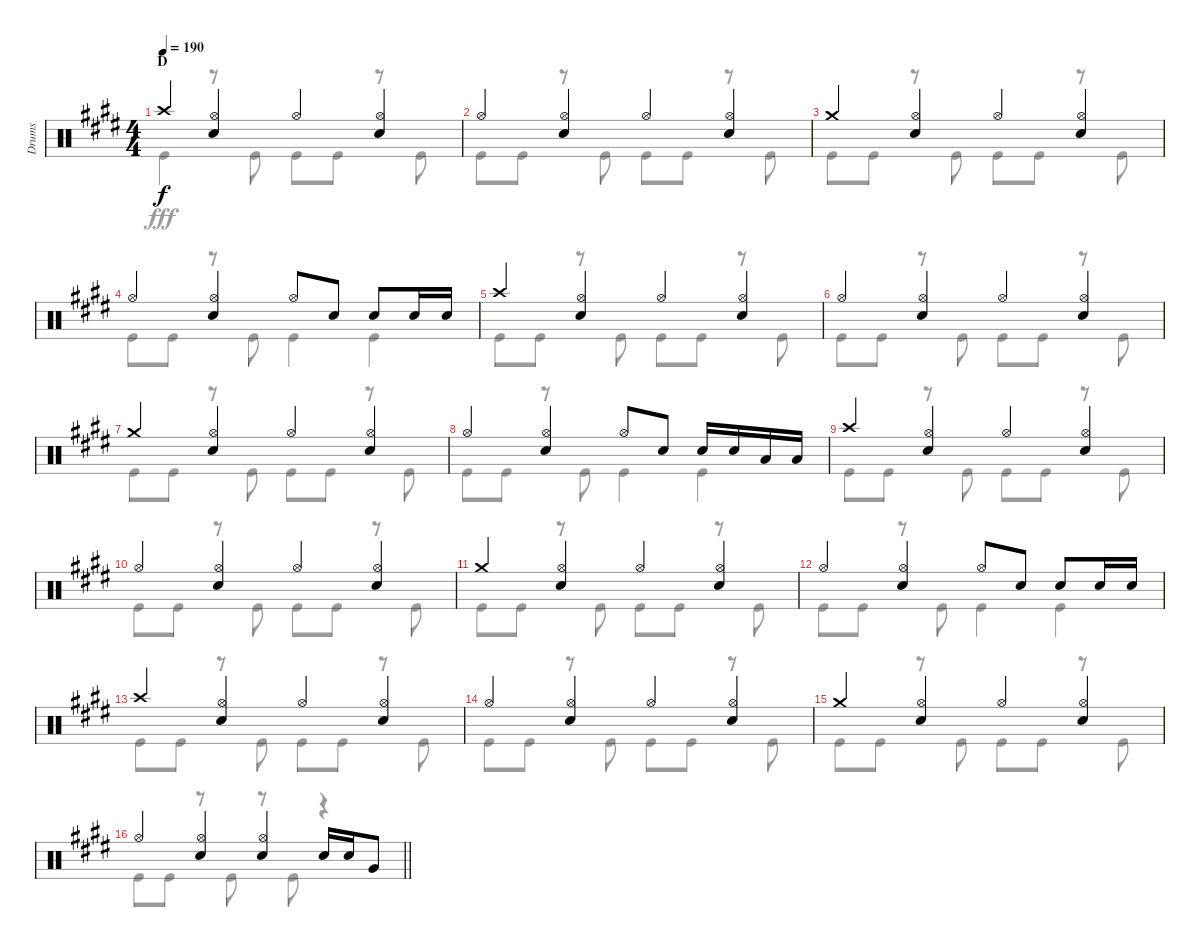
\track ("Drums" "Drums") {instrument percussion}
\staff {score}
\articulation defaults
\voice
\ts (4 4)
\section ("" "D")
\tempo 190
\clef neutral
\ks e "Crash high (hit)".4{dy f}
("Hi-Hat (open)" "Snare (hit) 2").4 "Hi-Hat (open)".4 ("Hi-Hat (open)" "Snare (hit) 2").4 |
"Hi-Hat (open)".4 ("Hi-Hat (open)" "Snare (hit) 2").4 "Hi-Hat (open)".4 ("Hi-Hat (open)" "Snare (hit) 2").4 |
"Crash medium (hit)".4 ("Hi-Hat (open)" "Snare (hit) 2").4 "Hi-Hat (open)".4 ("Hi-Hat (open)" "Snare (hit) 2").4 |
"Hi-Hat (open)".4 ("Hi-Hat (open)" "Snare (hit) 2").4 "Hi-Hat (open)".8 "Snare (hit) 2".8 "Snare (hit) 2".8 "Snare (hit) 2".16 "Snare (hit) 2".16 |
"Crash high (hit)".4 ("Hi-Hat (open)" "Snare (hit) 2").4 "Hi-Hat (open)".4 ("Hi-Hat (open)" "Snare (hit) 2").4 |
"Hi-Hat (open)".4 ("Hi-Hat (open)" "Snare (hit) 2").4 "Hi-Hat (open)".4 ("Hi-Hat (open)" "Snare (hit) 2").4 |
"Crash medium (hit)".4 ("Hi-Hat (open)" "Snare (hit) 2").4 "Hi-Hat (open)".4 ("Hi-Hat (open)" "Snare (hit) 2").4 |
"Hi-Hat (open)".4 ("Hi-Hat (open)" "Snare (hit) 2").4 "Hi-Hat (open)".8 "Snare (hit) 2".8 "Snare (hit) 2".16 "Snare (hit) 2".16 "Low Tom (hit)".16 "Low Tom (hit)".16 |
"Crash high (hit)".4 ("Hi-Hat (open)" "Snare (hit) 2").4 "Hi-Hat (open)".4 ("Hi-Hat (open)" "Snare (hit) 2").4 |
"Hi-Hat (open)".4 ("Hi-Hat (open)" "Snare (hit) 2").4 "Hi-Hat (open)".4 ("Hi-Hat (open)" "Snare (hit) 2").4 |
"Crash medium (hit)".4 ("Hi-Hat (open)" "Snare (hit) 2").4 "Hi-Hat (open)".4 ("Hi-Hat (open)" "Snare (hit) 2").4 |
"Hi-Hat (open)".4 ("Hi-Hat (open)" "Snare (hit) 2").4 "Hi-Hat (open)".8 "Snare (hit) 2".8 "Snare (hit) 2".8 "Snare (hit) 2".16 "Snare (hit) 2".16 |
"Crash high (hit)".4 ("Hi-Hat (open)" "Snare (hit) 2").4 "Hi-Hat (open)".4 ("Hi-Hat (open)" "Snare (hit) 2").4 |
"Hi-Hat (open)".4 ("Hi-Hat (open)" "Snare (hit) 2").4 "Hi-Hat (open)".4 ("Hi-Hat (open)" "Snare (hit) 2").4 |
"Crash medium (hit)".4 ("Hi-Hat (open)" "Snare (hit) 2").4 "Hi-Hat (open)".4 ("Hi-Hat (open)" "Snare (hit) 2").4 |
\barLineRight lightlight "Hi-Hat (open)".4
("Hi-Hat (open)" "Snare (hit) 2").4 ("Hi-Hat (open)" "Snare (hit) 2").4 "Snare (hit) 2".16 "Snare (hit) 2".16 "Very Low Tom (hit)".8
\voice
\clef neutral
\ottava regular
\simile none
\ks e "Kick (hit)".4{dy fff}
r.8 "Kick (hit)".8 "Kick (hit)".8 "Kick (hit)".8 r.8 "Kick (hit)".8 |
"Kick (hit)".8 "Kick (hit)".8 r.8 "Kick (hit)".8 "Kick (hit)".8 "Kick (hit)".8 r.8 "Kick (hit)".8 |
"Kick (hit)".8 "Kick (hit)".8 r.8 "Kick (hit)".8 "Kick (hit)".8 "Kick (hit)".8 r.8 "Kick (hit)".8 |
"Kick (hit)".8 "Kick (hit)".8 r.8 "Kick (hit)".8 "Kick (hit)".4 "Kick (hit)".4 |
"Kick (hit)".8 "Kick (hit)".8 r.8 "Kick (hit)".8 "Kick (hit)".8 "Kick (hit)".8 r.8 "Kick (hit)".8 |
"Kick (hit)".8 "Kick (hit)".8 r.8 "Kick (hit)".8 "Kick (hit)".8 "Kick (hit)".8 r.8 "Kick (hit)".8 |
"Kick (hit)".8 "Kick (hit)".8 r.8 "Kick (hit)".8 "Kick (hit)".8 "Kick (hit)".8 r.8 "Kick (hit)".8 |
"Kick (hit)".8 "Kick (hit)".8 r.8 "Kick (hit)".8 "Kick (hit)".4 "Kick (hit)".4 |
"Kick (hit)".8 "Kick (hit)".8 r.8 "Kick (hit)".8 "Kick (hit)".8 "Kick (hit)".8 r.8 "Kick (hit)".8 |
"Kick (hit)".8 "Kick (hit)".8 r.8 "Kick (hit)".8 "Kick (hit)".8 "Kick (hit)".8 r.8 "Kick (hit)".8 |
"Kick (hit)".8 "Kick (hit)".8 r.8 "Kick (hit)".8 "Kick (hit)".8 "Kick (hit)".8 r.8 "Kick (hit)".8 |
"Kick (hit)".8 "Kick (hit)".8 r.8 "Kick (hit)".8 "Kick (hit)".4 "Kick (hit)".4 |
"Kick (hit)".8 "Kick (hit)".8 r.8 "Kick (hit)".8 "Kick (hit)".8 "Kick (hit)".8 r.8 "Kick (hit)".8 |
"Kick (hit)".8 "Kick (hit)".8 r.8 "Kick (hit)".8 "Kick (hit)".8 "Kick (hit)".8 r.8 "Kick (hit)".8 |
"Kick (hit)".8 "Kick (hit)".8 r.8 "Kick (hit)".8 "Kick (hit)".8 "Kick (hit)".8 r.8 "Kick (hit)".8 |
\barLineRight lightlight "Kick (hit)".8 "Kick (hit)".8
r.8 "Kick (hit)".8 r.8 "Kick (hit)".8 r.4
